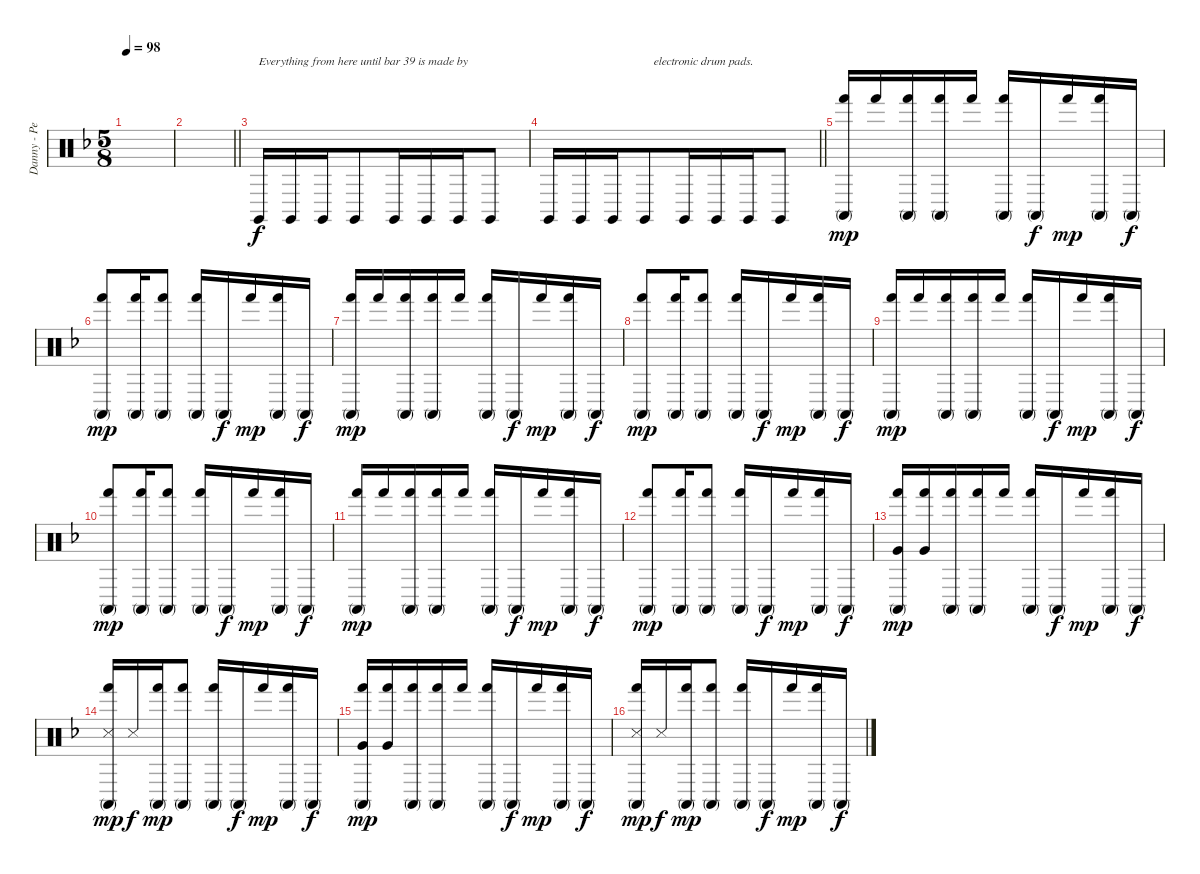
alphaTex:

\track ("Danny - Percusion" "Danny - Pe") {instrument percussion}
\staff {score}
\articulation defaults
\ts (5 8)
\tempo 98
\clef neutral
\ks dminor
|
\barLineRight lightlight
|
"Claves (hit)".16{txt "Everything from here until bar 39 is made by" volume 7} "Claves (hit)".16{beam merge} "Claves (hit)".16 "Claves (hit)".8 "Claves (hit)".16{beam merge} "Claves (hit)".16 "Claves (hit)".16{beam merge} "Claves (hit)".8 |
\barLineRight lightlight "Claves (hit)".16 "Claves (hit)".16{beam merge} "Claves (hit)".16 "Claves (hit)".8{txt "   electronic drum pads."} "Claves (hit)".16{beam merge} "Claves (hit)".16 "Claves (hit)".16{beam merge} "Claves (hit)".8
|
("Hand (hit)" "Conga high (mute)").16{dy mp beam Up} "Hand (hit)".16{beam merge} ("Hand (hit)" "Conga high (mute)").16 ("Hand (hit)" "Conga high (mute)").16{beam merge} "Hand (hit)".16{beam split} ("Hand (hit)" "Conga high (mute)").16{beam Up beam merge} "Conga high (mute)".16{dy f beam Up} "Hand (hit)".16{dy mp beam merge} ("Hand (hit)" "Conga high (mute)").16{beam Up} "Conga high (mute)".16{dy f beam Up} |
("Hand (hit)" "Conga high (mute)").8{dy mp beam Up beam merge} ("Hand (hit)" "Conga high (mute)").16 ("Hand (hit)" "Conga high (mute)").8{beam split} ("Hand (hit)" "Conga high (mute)").16{beam Up beam merge} "Conga high (mute)".16{dy f beam Up} "Hand (hit)".16{dy mp beam merge} ("Hand (hit)" "Conga high (mute)").16{beam Up} "Conga high (mute)".16{dy f beam Up} |
("Hand (hit)" "Conga high (mute)").16{dy mp beam Up} "Hand (hit)".16{beam merge} ("Hand (hit)" "Conga high (mute)").16 ("Hand (hit)" "Conga high (mute)").16{beam merge} "Hand (hit)".16{beam split} ("Hand (hit)" "Conga high (mute)").16{beam Up beam merge} "Conga high (mute)".16{dy f beam Up} "Hand (hit)".16{dy mp beam merge} ("Hand (hit)" "Conga high (mute)").16{beam Up} "Conga high (mute)".16{dy f beam Up} |
("Hand (hit)" "Conga high (mute)").8{dy mp beam Up beam merge} ("Hand (hit)" "Conga high (mute)").16 ("Hand (hit)" "Conga high (mute)").8{beam split} ("Hand (hit)" "Conga high (mute)").16{beam Up beam merge} "Conga high (mute)".16{dy f beam Up} "Hand (hit)".16{dy mp beam merge} ("Hand (hit)" "Conga high (mute)").16{beam Up} "Conga high (mute)".16{dy f beam Up} |
("Hand (hit)" "Conga high (mute)").16{dy mp beam Up} "Hand (hit)".16{beam merge} ("Hand (hit)" "Conga high (mute)").16 ("Hand (hit)" "Conga high (mute)").16{beam merge} "Hand (hit)".16{beam split} ("Hand (hit)" "Conga high (mute)").16{beam Up beam merge} "Conga high (mute)".16{dy f beam Up} "Hand (hit)".16{dy mp beam merge} ("Hand (hit)" "Conga high (mute)").16{beam Up} "Conga high (mute)".16{dy f beam Up} |
("Hand (hit)" "Conga high (mute)").8{dy mp beam Up beam merge} ("Hand (hit)" "Conga high (mute)").16 ("Hand (hit)" "Conga high (mute)").8{beam split} ("Hand (hit)" "Conga high (mute)").16{beam Up beam merge} "Conga high (mute)".16{dy f beam Up} "Hand (hit)".16{dy mp beam merge} ("Hand (hit)" "Conga high (mute)").16{beam Up} "Conga high (mute)".16{dy f beam Up} |
("Hand (hit)" "Conga high (mute)").16{dy mp beam Up} "Hand (hit)".16{beam merge} ("Hand (hit)" "Conga high (mute)").16 ("Hand (hit)" "Conga high (mute)").16{beam merge} "Hand (hit)".16{beam split} ("Hand (hit)" "Conga high (mute)").16{beam Up beam merge} "Conga high (mute)".16{dy f beam Up} "Hand (hit)".16{dy mp beam merge} ("Hand (hit)" "Conga high (mute)").16{beam Up} "Conga high (mute)".16{dy f beam Up} |
("Hand (hit)" "Conga high (mute)").8{dy mp beam Up beam merge} ("Hand (hit)" "Conga high (mute)").16 ("Hand (hit)" "Conga high (mute)").8{beam split} ("Hand (hit)" "Conga high (mute)").16{beam Up beam merge} "Conga high (mute)".16{dy f beam Up} "Hand (hit)".16{dy mp beam merge} ("Hand (hit)" "Conga high (mute)").16{beam Up} "Conga high (mute)".16{dy f beam Up} |
("Hand (hit)" "Conga high (mute)" "Very Low Tom (hit)").16{dy mp beam Up} ("Hand (hit)" "Very Low Tom (hit)").16{beam merge} ("Hand (hit)" "Conga high (mute)").16 ("Hand (hit)" "Conga high (mute)").16{beam merge} "Hand (hit)".16{beam split} ("Hand (hit)" "Conga high (mute)").16{beam Up beam merge} "Conga high (mute)".16{dy f beam Up} "Hand (hit)".16{dy mp beam merge} ("Hand (hit)" "Conga high (mute)").16{beam Up} "Conga high (mute)".16{dy f beam Up} |
("Hand (hit)" "Conga high (mute)" "Snare (side stick) 3").16{dy mp beam Up} "Snare (side stick) 3".16{dy f beam merge} ("Hand (hit)" "Conga high (mute)").16{dy mp} ("Hand (hit)" "Conga high (mute)").8{beam split} ("Hand (hit)" "Conga high (mute)").16{beam Up beam merge} "Conga high (mute)".16{dy f beam Up} "Hand (hit)".16{dy mp beam merge} ("Hand (hit)" "Conga high (mute)").16{beam Up} "Conga high (mute)".16{dy f beam Up} |
("Hand (hit)" "Conga high (mute)" "Very Low Tom (hit)").16{dy mp beam Up} ("Hand (hit)" "Very Low Tom (hit)").16{beam merge} ("Hand (hit)" "Conga high (mute)").16 ("Hand (hit)" "Conga high (mute)").16{beam merge} "Hand (hit)".16{beam split} ("Hand (hit)" "Conga high (mute)").16{beam Up beam merge} "Conga high (mute)".16{dy f beam Up} "Hand (hit)".16{dy mp beam merge} ("Hand (hit)" "Conga high (mute)").16{beam Up} "Conga high (mute)".16{dy f beam Up} |
("Hand (hit)" "Conga high (mute)" "Snare (side stick) 3").16{dy mp beam Up} "Snare (side stick) 3".16{dy f beam merge} ("Hand (hit)" "Conga high (mute)").16{dy mp} ("Hand (hit)" "Conga high (mute)").8{beam split} ("Hand (hit)" "Conga high (mute)").16{beam Up beam merge} "Conga high (mute)".16{dy f beam Up} "Hand (hit)".16{dy mp beam merge} ("Hand (hit)" "Conga high (mute)").16{beam Up} "Conga high (mute)".16{dy f beam Up}
